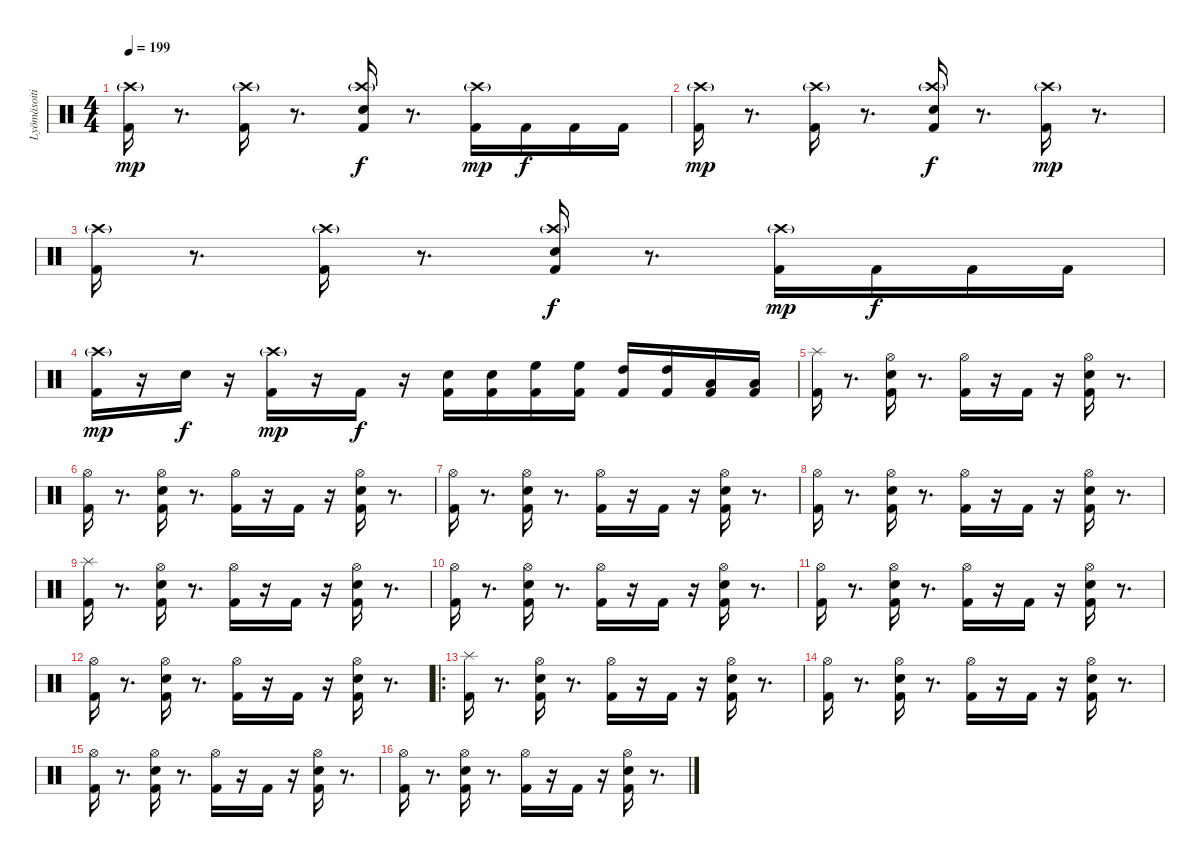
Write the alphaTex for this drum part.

\track ("Lyömäsoitin" "Lyömäsoiti") {instrument percussion}
\staff {score}
\articulation defaults
\ts (4 4)
\tempo 199
\clef neutral
\ks c
("Kick (hit) 2" "Crash high (hit)"{g}).16{dy mp} r.8{d} ("Kick (hit) 2" "Crash high (hit)"{g}).16 r.8{d} ("Kick (hit) 2" "Crash high (hit)"{g} "Snare (hit) 2").16{dy f} r.8{d} ("Kick (hit) 2" "Crash high (hit)"{g}).16{dy mp} "Kick (hit) 2".16{dy f} "Kick (hit) 2".16 "Kick (hit) 2".16 |
("Kick (hit) 2" "Crash high (hit)"{g}).16{dy mp} r.8{d} ("Kick (hit) 2" "Crash high (hit)"{g}).16 r.8{d} ("Kick (hit) 2" "Crash high (hit)"{g} "Snare (hit) 2").16{dy f} r.8{d} ("Kick (hit) 2" "Crash high (hit)"{g}).16{dy mp} r.8{d} |
("Kick (hit) 2" "Crash high (hit)"{g}).16 r.8{d} ("Kick (hit) 2" "Crash high (hit)"{g}).16 r.8{d} ("Kick (hit) 2" "Crash high (hit)"{g} "Snare (hit) 2").16{dy f} r.8{d} ("Kick (hit) 2" "Crash high (hit)"{g}).16{dy mp} "Kick (hit) 2".16{dy f} "Kick (hit) 2".16 "Kick (hit) 2".16 |
("Kick (hit) 2" "Crash high (hit)"{g}).16{dy mp} r.16 "Snare (hit) 2".16{dy f} r.16 ("Kick (hit) 2" "Crash high (hit)"{g}).16{dy mp} r.16 "Kick (hit) 2".16{dy f} r.16 ("Kick (hit) 2" "Snare (hit) 2").16 ("Kick (hit) 2" "Snare (hit) 2").16 ("Kick (hit) 2" "High Floor Tom (hit)").16 ("Kick (hit) 2" "High Floor Tom (hit)").16 ("Kick (hit) 2" "High Tom (hit)").16 ("Kick (hit) 2" "High Tom (hit)").16 ("Kick (hit) 2" "Low Tom (hit)").16 ("Kick (hit) 2" "Low Tom (hit)").16 |
("Kick (hit) 2" "Splash (hit)").16 r.8{d} ("Kick (hit) 2" "Hi-Hat (open)" "Snare (hit) 2").16 r.8{d} ("Kick (hit) 2" "Hi-Hat (open)").16 r.16 "Kick (hit) 2".16 r.16 ("Kick (hit) 2" "Hi-Hat (open)" "Snare (hit) 2").16 r.8{d} |
("Kick (hit) 2" "Hi-Hat (open)").16 r.8{d} ("Kick (hit) 2" "Hi-Hat (open)" "Snare (hit) 2").16 r.8{d} ("Kick (hit) 2" "Hi-Hat (open)").16 r.16 "Kick (hit) 2".16 r.16 ("Kick (hit) 2" "Hi-Hat (open)" "Snare (hit) 2").16 r.8{d} |
("Kick (hit) 2" "Hi-Hat (open)").16 r.8{d} ("Kick (hit) 2" "Hi-Hat (open)" "Snare (hit) 2").16 r.8{d} ("Kick (hit) 2" "Hi-Hat (open)").16 r.16 "Kick (hit) 2".16 r.16 ("Kick (hit) 2" "Hi-Hat (open)" "Snare (hit) 2").16 r.8{d} |
("Kick (hit) 2" "Hi-Hat (open)").16 r.8{d} ("Kick (hit) 2" "Hi-Hat (open)" "Snare (hit) 2").16 r.8{d} ("Kick (hit) 2" "Hi-Hat (open)").16 r.16 "Kick (hit) 2".16 r.16 ("Kick (hit) 2" "Hi-Hat (open)" "Snare (hit) 2").16 r.8{d} |
("Kick (hit) 2" "Splash (hit)").16 r.8{d} ("Kick (hit) 2" "Hi-Hat (open)" "Snare (hit) 2").16 r.8{d} ("Kick (hit) 2" "Hi-Hat (open)").16 r.16 "Kick (hit) 2".16 r.16 ("Kick (hit) 2" "Hi-Hat (open)" "Snare (hit) 2").16 r.8{d} |
("Kick (hit) 2" "Hi-Hat (open)").16 r.8{d} ("Kick (hit) 2" "Hi-Hat (open)" "Snare (hit) 2").16 r.8{d} ("Kick (hit) 2" "Hi-Hat (open)").16 r.16 "Kick (hit) 2".16 r.16 ("Kick (hit) 2" "Hi-Hat (open)" "Snare (hit) 2").16 r.8{d} |
("Kick (hit) 2" "Hi-Hat (open)").16 r.8{d} ("Kick (hit) 2" "Hi-Hat (open)" "Snare (hit) 2").16 r.8{d} ("Kick (hit) 2" "Hi-Hat (open)").16 r.16 "Kick (hit) 2".16 r.16 ("Kick (hit) 2" "Hi-Hat (open)" "Snare (hit) 2").16 r.8{d} |
("Kick (hit) 2" "Hi-Hat (open)").16 r.8{d} ("Kick (hit) 2" "Hi-Hat (open)" "Snare (hit) 2").16 r.8{d} ("Kick (hit) 2" "Hi-Hat (open)").16 r.16 "Kick (hit) 2".16 r.16 ("Kick (hit) 2" "Hi-Hat (open)" "Snare (hit) 2").16 r.8{d} |
\ro
("Kick (hit) 2" "Splash (hit)").16 r.8{d} ("Kick (hit) 2" "Hi-Hat (open)" "Snare (hit) 2").16 r.8{d} ("Kick (hit) 2" "Hi-Hat (open)").16 r.16 "Kick (hit) 2".16 r.16 ("Kick (hit) 2" "Hi-Hat (open)" "Snare (hit) 2").16 r.8{d} |
("Kick (hit) 2" "Hi-Hat (open)").16 r.8{d} ("Kick (hit) 2" "Hi-Hat (open)" "Snare (hit) 2").16 r.8{d} ("Kick (hit) 2" "Hi-Hat (open)").16 r.16 "Kick (hit) 2".16 r.16 ("Kick (hit) 2" "Hi-Hat (open)" "Snare (hit) 2").16 r.8{d} |
("Kick (hit) 2" "Hi-Hat (open)").16 r.8{d} ("Kick (hit) 2" "Hi-Hat (open)" "Snare (hit) 2").16 r.8{d} ("Kick (hit) 2" "Hi-Hat (open)").16 r.16 "Kick (hit) 2".16 r.16 ("Kick (hit) 2" "Hi-Hat (open)" "Snare (hit) 2").16 r.8{d} |
("Kick (hit) 2" "Hi-Hat (open)").16 r.8{d} ("Kick (hit) 2" "Hi-Hat (open)" "Snare (hit) 2").16 r.8{d} ("Kick (hit) 2" "Hi-Hat (open)").16 r.16 "Kick (hit) 2".16 r.16 ("Kick (hit) 2" "Hi-Hat (open)" "Snare (hit) 2").16 r.8{d}
